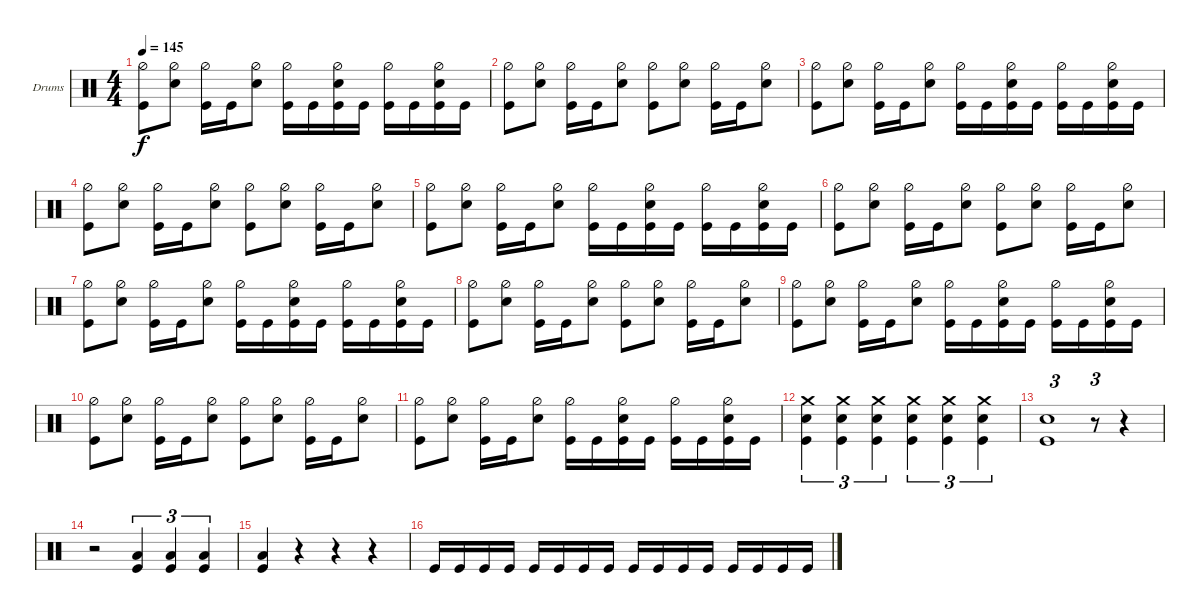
\bracketExtendMode groupsimilarinstruments
\firstSystemTrackNameOrientation horizontal
\otherSystemsTrackNameOrientation horizontal
\track ("Drumkit" "Drums") {instrument percussion}
\staff {score}
\articulation defaults
\ts (4 4)
\tempo 145
\clef neutral
\ks c
("Kick (hit)" "Hi-Hat (half)").8{dy f} ("Snare (hit) 2" "Hi-Hat (half)").8 ("Kick (hit)" "Hi-Hat (half)").16 "Kick (hit)".16 ("Snare (hit) 2" "Hi-Hat (half)").8 ("Kick (hit)" "Hi-Hat (half)").16 "Kick (hit)".16 ("Snare (hit) 2" "Kick (hit)" "Hi-Hat (half)").16 "Kick (hit)".16 ("Kick (hit)" "Hi-Hat (half)").16 "Kick (hit)".16 ("Snare (hit) 2" "Kick (hit)" "Hi-Hat (half)").16 "Kick (hit)".16 |
("Kick (hit)" "Hi-Hat (half)").8 ("Snare (hit) 2" "Hi-Hat (half)").8 ("Kick (hit)" "Hi-Hat (half)").16 "Kick (hit)".16 ("Snare (hit) 2" "Hi-Hat (half)").8 ("Kick (hit)" "Hi-Hat (half)").8 ("Snare (hit) 2" "Hi-Hat (half)").8 ("Kick (hit)" "Hi-Hat (half)").16 "Kick (hit)".16 ("Snare (hit) 2" "Hi-Hat (half)").8 |
("Kick (hit)" "Hi-Hat (half)").8 ("Snare (hit) 2" "Hi-Hat (half)").8 ("Kick (hit)" "Hi-Hat (half)").16 "Kick (hit)".16 ("Snare (hit) 2" "Hi-Hat (half)").8 ("Kick (hit)" "Hi-Hat (half)").16 "Kick (hit)".16 ("Snare (hit) 2" "Kick (hit)" "Hi-Hat (half)").16 "Kick (hit)".16 ("Kick (hit)" "Hi-Hat (half)").16 "Kick (hit)".16 ("Snare (hit) 2" "Kick (hit)" "Hi-Hat (half)").16 "Kick (hit)".16 |
("Kick (hit)" "Hi-Hat (half)").8 ("Snare (hit) 2" "Hi-Hat (half)").8 ("Kick (hit)" "Hi-Hat (half)").16 "Kick (hit)".16 ("Snare (hit) 2" "Hi-Hat (half)").8 ("Kick (hit)" "Hi-Hat (half)").8 ("Snare (hit) 2" "Hi-Hat (half)").8 ("Kick (hit)" "Hi-Hat (half)").16 "Kick (hit)".16 ("Snare (hit) 2" "Hi-Hat (half)").8 |
("Kick (hit)" "Hi-Hat (half)").8 ("Snare (hit) 2" "Hi-Hat (half)").8 ("Kick (hit)" "Hi-Hat (half)").16 "Kick (hit)".16 ("Snare (hit) 2" "Hi-Hat (half)").8 ("Kick (hit)" "Hi-Hat (half)").16 "Kick (hit)".16 ("Snare (hit) 2" "Kick (hit)" "Hi-Hat (half)").16 "Kick (hit)".16 ("Kick (hit)" "Hi-Hat (half)").16 "Kick (hit)".16 ("Snare (hit) 2" "Kick (hit)" "Hi-Hat (half)").16 "Kick (hit)".16 |
("Kick (hit)" "Hi-Hat (half)").8 ("Snare (hit) 2" "Hi-Hat (half)").8 ("Kick (hit)" "Hi-Hat (half)").16 "Kick (hit)".16 ("Snare (hit) 2" "Hi-Hat (half)").8 ("Kick (hit)" "Hi-Hat (half)").8 ("Snare (hit) 2" "Hi-Hat (half)").8 ("Kick (hit)" "Hi-Hat (half)").16 "Kick (hit)".16 ("Snare (hit) 2" "Hi-Hat (half)").8 |
("Kick (hit)" "Hi-Hat (half)").8 ("Snare (hit) 2" "Hi-Hat (half)").8 ("Kick (hit)" "Hi-Hat (half)").16 "Kick (hit)".16 ("Snare (hit) 2" "Hi-Hat (half)").8 ("Kick (hit)" "Hi-Hat (half)").16 "Kick (hit)".16 ("Snare (hit) 2" "Kick (hit)" "Hi-Hat (half)").16 "Kick (hit)".16 ("Kick (hit)" "Hi-Hat (half)").16 "Kick (hit)".16 ("Snare (hit) 2" "Kick (hit)" "Hi-Hat (half)").16 "Kick (hit)".16 |
("Kick (hit)" "Hi-Hat (half)").8 ("Snare (hit) 2" "Hi-Hat (half)").8 ("Kick (hit)" "Hi-Hat (half)").16 "Kick (hit)".16 ("Snare (hit) 2" "Hi-Hat (half)").8 ("Kick (hit)" "Hi-Hat (half)").8 ("Snare (hit) 2" "Hi-Hat (half)").8 ("Kick (hit)" "Hi-Hat (half)").16 "Kick (hit)".16 ("Snare (hit) 2" "Hi-Hat (half)").8 |
("Kick (hit)" "Hi-Hat (half)").8 ("Snare (hit) 2" "Hi-Hat (half)").8 ("Kick (hit)" "Hi-Hat (half)").16 "Kick (hit)".16 ("Snare (hit) 2" "Hi-Hat (half)").8 ("Kick (hit)" "Hi-Hat (half)").16 "Kick (hit)".16 ("Snare (hit) 2" "Kick (hit)" "Hi-Hat (half)").16 "Kick (hit)".16 ("Kick (hit)" "Hi-Hat (half)").16 "Kick (hit)".16 ("Snare (hit) 2" "Kick (hit)" "Hi-Hat (half)").16 "Kick (hit)".16 |
("Kick (hit)" "Hi-Hat (half)").8 ("Snare (hit) 2" "Hi-Hat (half)").8 ("Kick (hit)" "Hi-Hat (half)").16 "Kick (hit)".16 ("Snare (hit) 2" "Hi-Hat (half)").8 ("Kick (hit)" "Hi-Hat (half)").8 ("Snare (hit) 2" "Hi-Hat (half)").8 ("Kick (hit)" "Hi-Hat (half)").16 "Kick (hit)".16 ("Snare (hit) 2" "Hi-Hat (half)").8 |
("Kick (hit)" "Hi-Hat (half)").8 ("Snare (hit) 2" "Hi-Hat (half)").8 ("Kick (hit)" "Hi-Hat (half)").16 "Kick (hit)".16 ("Snare (hit) 2" "Hi-Hat (half)").8 ("Kick (hit)" "Hi-Hat (half)").16 "Kick (hit)".16 ("Snare (hit) 2" "Kick (hit)" "Hi-Hat (half)").16 "Kick (hit)".16 ("Kick (hit)" "Hi-Hat (half)").16 "Kick (hit)".16 ("Snare (hit) 2" "Kick (hit)" "Hi-Hat (half)").16 "Kick (hit)".16 |
("Crash medium (hit)" "Snare (hit) 2" "Kick (hit)").4{tu (3 2)} ("Crash medium (hit)" "Snare (hit) 2" "Kick (hit)").4{tu (3 2)} ("Crash medium (hit)" "Snare (hit) 2" "Kick (hit)").4{tu (3 2)} ("Crash medium (hit)" "Snare (hit) 2" "Kick (hit)").4{tu (3 2)} ("Crash medium (hit)" "Snare (hit) 2" "Kick (hit)").4{tu (3 2)} ("Crash medium (hit)" "Snare (hit) 2" "Kick (hit)").4{tu (3 2)} |
("Snare (hit) 2" "Kick (hit)").1{tu (3 2)} r.8{tu (3 2)} r.4 |
r.2 ("Low Tom (hit)" "Kick (hit)").4{tu (3 2)} ("Low Tom (hit)" "Kick (hit)").4{tu (3 2)} ("Low Tom (hit)" "Kick (hit)").4{tu (3 2)} |
("Low Tom (hit)" "Kick (hit)").4 r.4 r.4 r.4 |
"Kick (hit)".16 "Kick (hit)".16 "Kick (hit)".16 "Kick (hit)".16 "Kick (hit)".16 "Kick (hit)".16 "Kick (hit)".16 "Kick (hit)".16 "Kick (hit)".16 "Kick (hit)".16 "Kick (hit)".16 "Kick (hit)".16 "Kick (hit)".16 "Kick (hit)".16 "Kick (hit)".16 "Kick (hit)".16
